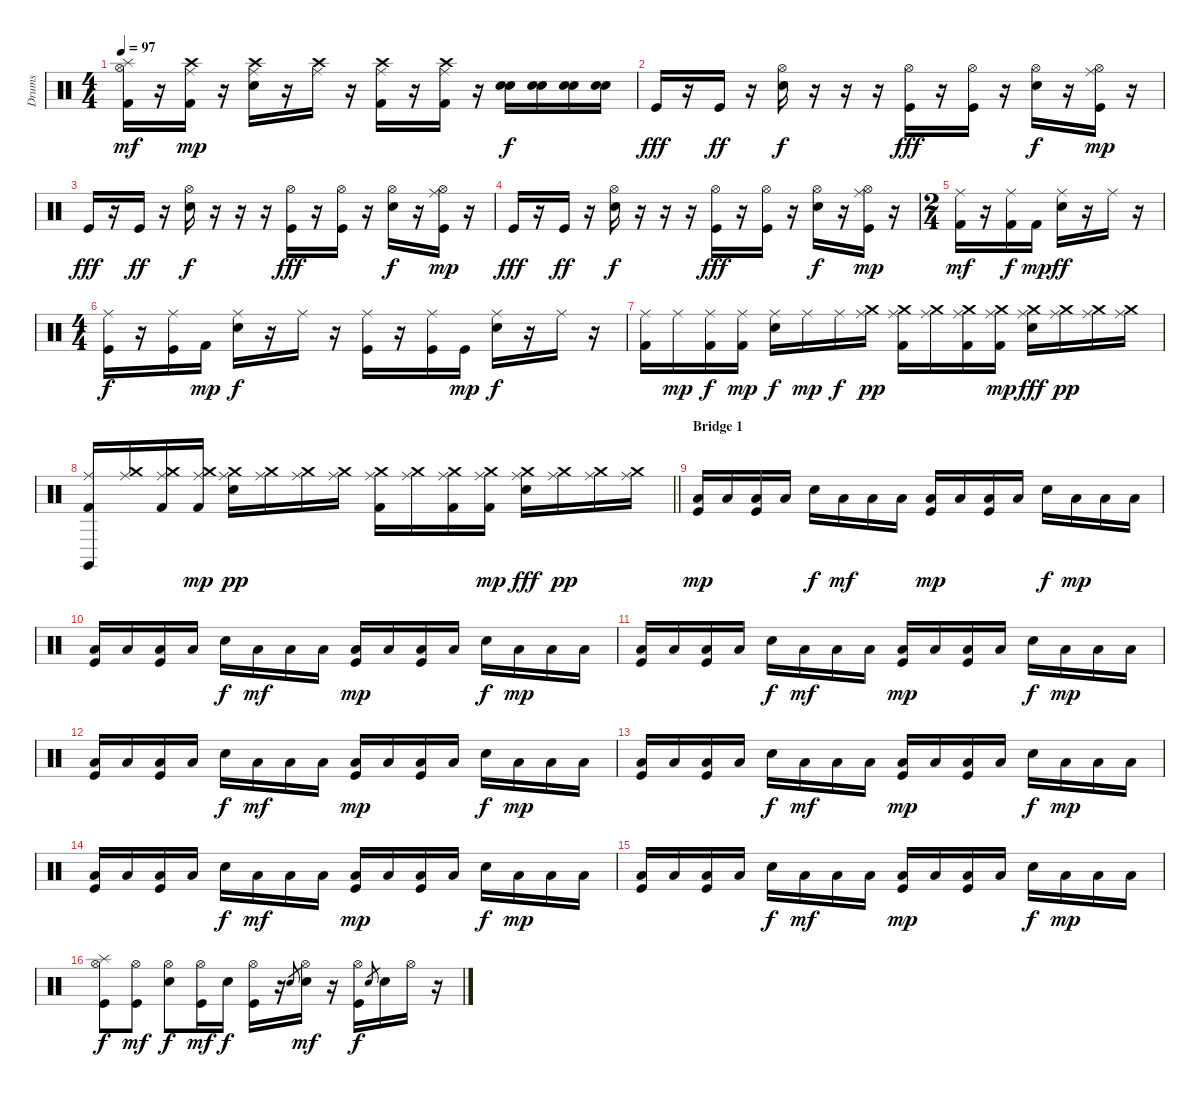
\track ("Drums" "Drums") {instrument percussion}
\staff {score}
\articulation defaults
\ts (4 4)
\tempo 97
\clef neutral
\ks c
("Hi-Hat (open)" "Splash (hit)" "Kick (hit) 2").16{dy mf} r.16 ("Crash high (hit)" "Ride (middle)" "Kick (hit) 2").16{dy mp} r.16 ("Crash high (hit)" "Ride (middle)" "Electric Snare (hit)").16 r.16 ("Crash high (hit)" "Ride (middle)").16 r.16 ("Crash high (hit)" "Ride (middle)" "Kick (hit) 2").16 r.16 ("Crash high (hit)" "Ride (middle)" "Kick (hit) 2").16 r.16 ("Electric Snare (hit)" "Electric Snare (hit)").16{dy f} ("Electric Snare (hit)" "Electric Snare (hit)").16 ("Electric Snare (hit)" "Electric Snare (hit)").16 ("Electric Snare (hit)" "Electric Snare (hit)").16 |
"Kick (hit)".16{dy fff} r.16 "Kick (hit)".16{dy ff} r.16 ("Hi-Hat (open)" "Electric Snare (hit)").16{dy f} r.16 r.16 r.16 ("Hi-Hat (open)" "Kick (hit)").16{dy fff} r.16 ("Hi-Hat (open)" "Kick (hit)").16 r.16 ("Hi-Hat (open)" "Electric Snare (hit)").16{dy f} r.16 ("Ride (middle)" "Hi-Hat (open)" "Kick (hit)").16{dy mp} r.16 |
"Kick (hit)".16{dy fff} r.16 "Kick (hit)".16{dy ff} r.16 ("Hi-Hat (open)" "Electric Snare (hit)").16{dy f} r.16 r.16 r.16 ("Hi-Hat (open)" "Kick (hit)").16{dy fff} r.16 ("Hi-Hat (open)" "Kick (hit)").16 r.16 ("Hi-Hat (open)" "Electric Snare (hit)").16{dy f} r.16 ("Ride (middle)" "Hi-Hat (open)" "Kick (hit)").16{dy mp} r.16 |
"Kick (hit)".16{dy fff} r.16 "Kick (hit)".16{dy ff} r.16 ("Hi-Hat (open)" "Electric Snare (hit)").16{dy f} r.16 r.16 r.16 ("Hi-Hat (open)" "Kick (hit)").16{dy fff} r.16 ("Hi-Hat (open)" "Kick (hit)").16 r.16 ("Hi-Hat (open)" "Electric Snare (hit)").16{dy f} r.16 ("Ride (middle)" "Hi-Hat (open)" "Kick (hit)").16{dy mp} r.16 |
\ts (2 4)
("Ride (middle)" "Kick (hit) 2").16{dy mf} r.16 ("Ride (middle)" "Kick (hit) 2").16{dy f} "Kick (hit) 2".16{dy mp} ("Ride (middle)" "Electric Snare (hit)").16{dy ff} r.16 "Ride (middle)".16 r.16 |
\ts (4 4)
("Ride (middle)" "Kick (hit)").16{dy f} r.16 ("Ride (middle)" "Kick (hit)").16 "Kick (hit) 2".16{dy mp} ("Ride (middle)" "Electric Snare (hit)").16{dy f} r.16 "Ride (middle)".16 r.16 ("Ride (middle)" "Kick (hit)").16 r.16 ("Ride (middle)" "Kick (hit)").16 "Kick (hit)".16{dy mp} ("Ride (middle)" "Electric Snare (hit)").16{dy f} r.16 "Ride (middle)".16 r.16 |
("Ride (middle)" "Kick (hit) 2").16 "Ride (middle)".16{dy mp} ("Ride (middle)" "Kick (hit) 2").16{dy f} ("Ride (middle)" "Kick (hit) 2").16{dy mp} ("Ride (middle)" "Electric Snare (hit)").16{dy f} "Ride (middle)".16{dy mp} "Ride (middle)".16{dy f} ("Ride (middle)" "Crash medium (hit)").16{dy pp} ("Ride (middle)" "Crash medium (hit)" "Kick (hit) 2").16 ("Ride (middle)" "Crash medium (hit)").16 ("Ride (middle)" "Crash medium (hit)" "Kick (hit) 2").16 ("Ride (middle)" "Crash medium (hit)" "Kick (hit) 2").16{dy mp} ("Ride (middle)" "Crash medium (hit)" "Electric Snare (hit)").16{dy fff} ("Ride (middle)" "Crash medium (hit)").16{dy pp} ("Ride (middle)" "Crash medium (hit)").16 ("Ride (middle)" "Crash medium (hit)").16 |
\barLineRight lightlight
("Ride (middle)" "Claves (hit)" "Kick (hit) 2").16 ("Ride (middle)" "Crash medium (hit)").16 ("Ride (middle)" "Crash medium (hit)" "Kick (hit) 2").16 ("Ride (middle)" "Crash medium (hit)" "Kick (hit) 2").16{dy mp} ("Ride (middle)" "Crash medium (hit)" "Electric Snare (hit)").16{dy pp} ("Ride (middle)" "Crash medium (hit)").16 ("Ride (middle)" "Crash medium (hit)").16 ("Ride (middle)" "Crash medium (hit)").16 ("Ride (middle)" "Crash medium (hit)" "Kick (hit) 2").16 ("Ride (middle)" "Crash medium (hit)").16 ("Ride (middle)" "Crash medium (hit)" "Kick (hit) 2").16 ("Ride (middle)" "Crash medium (hit)" "Kick (hit) 2").16{dy mp} ("Ride (middle)" "Crash medium (hit)" "Electric Snare (hit)").16{dy fff} ("Ride (middle)" "Crash medium (hit)").16{dy pp} ("Ride (middle)" "Crash medium (hit)").16 ("Ride (middle)" "Crash medium (hit)").16 |
\section ("" "Bridge 1")
("Low Tom (hit)" "Kick (hit)").16{dy mp} "Low Tom (hit)".16 ("Low Tom (hit)" "Kick (hit)").16 "Low Tom (hit)".16 "Electric Snare (hit)".16{dy f} "Low Tom (hit)".16{dy mf} "Low Tom (hit)".16 "Low Tom (hit)".16 ("Low Tom (hit)" "Kick (hit)").16{dy mp} "Low Tom (hit)".16 ("Low Tom (hit)" "Kick (hit)").16 "Low Tom (hit)".16 "Electric Snare (hit)".16{dy f} "Low Tom (hit)".16{dy mp} "Low Tom (hit)".16 "Low Tom (hit)".16 |
("Low Tom (hit)" "Kick (hit)").16 "Low Tom (hit)".16 ("Low Tom (hit)" "Kick (hit)").16 "Low Tom (hit)".16 "Electric Snare (hit)".16{dy f} "Low Tom (hit)".16{dy mf} "Low Tom (hit)".16 "Low Tom (hit)".16 ("Low Tom (hit)" "Kick (hit)").16{dy mp} "Low Tom (hit)".16 ("Low Tom (hit)" "Kick (hit)").16 "Low Tom (hit)".16 "Electric Snare (hit)".16{dy f} "Low Tom (hit)".16{dy mp} "Low Tom (hit)".16 "Low Tom (hit)".16 |
("Low Tom (hit)" "Kick (hit)").16 "Low Tom (hit)".16 ("Low Tom (hit)" "Kick (hit)").16 "Low Tom (hit)".16 "Electric Snare (hit)".16{dy f} "Low Tom (hit)".16{dy mf} "Low Tom (hit)".16 "Low Tom (hit)".16 ("Low Tom (hit)" "Kick (hit)").16{dy mp} "Low Tom (hit)".16 ("Low Tom (hit)" "Kick (hit)").16 "Low Tom (hit)".16 "Electric Snare (hit)".16{dy f} "Low Tom (hit)".16{dy mp} "Low Tom (hit)".16 "Low Tom (hit)".16 |
("Low Tom (hit)" "Kick (hit)").16 "Low Tom (hit)".16 ("Low Tom (hit)" "Kick (hit)").16 "Low Tom (hit)".16 "Electric Snare (hit)".16{dy f} "Low Tom (hit)".16{dy mf} "Low Tom (hit)".16 "Low Tom (hit)".16 ("Low Tom (hit)" "Kick (hit)").16{dy mp} "Low Tom (hit)".16 ("Low Tom (hit)" "Kick (hit)").16 "Low Tom (hit)".16 "Electric Snare (hit)".16{dy f} "Low Tom (hit)".16{dy mp} "Low Tom (hit)".16 "Low Tom (hit)".16 |
("Low Tom (hit)" "Kick (hit)").16 "Low Tom (hit)".16 ("Low Tom (hit)" "Kick (hit)").16 "Low Tom (hit)".16 "Electric Snare (hit)".16{dy f} "Low Tom (hit)".16{dy mf} "Low Tom (hit)".16 "Low Tom (hit)".16 ("Low Tom (hit)" "Kick (hit)").16{dy mp} "Low Tom (hit)".16 ("Low Tom (hit)" "Kick (hit)").16 "Low Tom (hit)".16 "Electric Snare (hit)".16{dy f} "Low Tom (hit)".16{dy mp} "Low Tom (hit)".16 "Low Tom (hit)".16 |
("Low Tom (hit)" "Kick (hit)").16 "Low Tom (hit)".16 ("Low Tom (hit)" "Kick (hit)").16 "Low Tom (hit)".16 "Electric Snare (hit)".16{dy f} "Low Tom (hit)".16{dy mf} "Low Tom (hit)".16 "Low Tom (hit)".16 ("Low Tom (hit)" "Kick (hit)").16{dy mp} "Low Tom (hit)".16 ("Low Tom (hit)" "Kick (hit)").16 "Low Tom (hit)".16 "Electric Snare (hit)".16{dy f} "Low Tom (hit)".16{dy mp} "Low Tom (hit)".16 "Low Tom (hit)".16 |
("Low Tom (hit)" "Kick (hit)").16 "Low Tom (hit)".16 ("Low Tom (hit)" "Kick (hit)").16 "Low Tom (hit)".16 "Electric Snare (hit)".16{dy f} "Low Tom (hit)".16{dy mf} "Low Tom (hit)".16 "Low Tom (hit)".16 ("Low Tom (hit)" "Kick (hit)").16{dy mp} "Low Tom (hit)".16 ("Low Tom (hit)" "Kick (hit)").16 "Low Tom (hit)".16 "Electric Snare (hit)".16{dy f} "Low Tom (hit)".16{dy mp} "Low Tom (hit)".16 "Low Tom (hit)".16 |
("Hi-Hat (open)" "Splash (hit)" "Kick (hit)").8{dy f} ("Hi-Hat (open)" "Kick (hit)").8{dy mf} ("Hi-Hat (open)" "Electric Snare (hit)").8{dy f} ("Hi-Hat (open)" "Kick (hit)").16{dy mf} "Electric Snare (hit)".16{dy f} ("Hi-Hat (open)" "Kick (hit)").16 r.16 "Electric Snare (hit)".8{gr} ("Hi-Hat (open)" "Electric Snare (hit)").16{dy mf} r.16 ("Hi-Hat (open)" "Kick (hit)").16{dy f} "Electric Snare (hit)".8{gr} "Electric Snare (hit)".16 "Hi-Hat (open)".16 r.16
